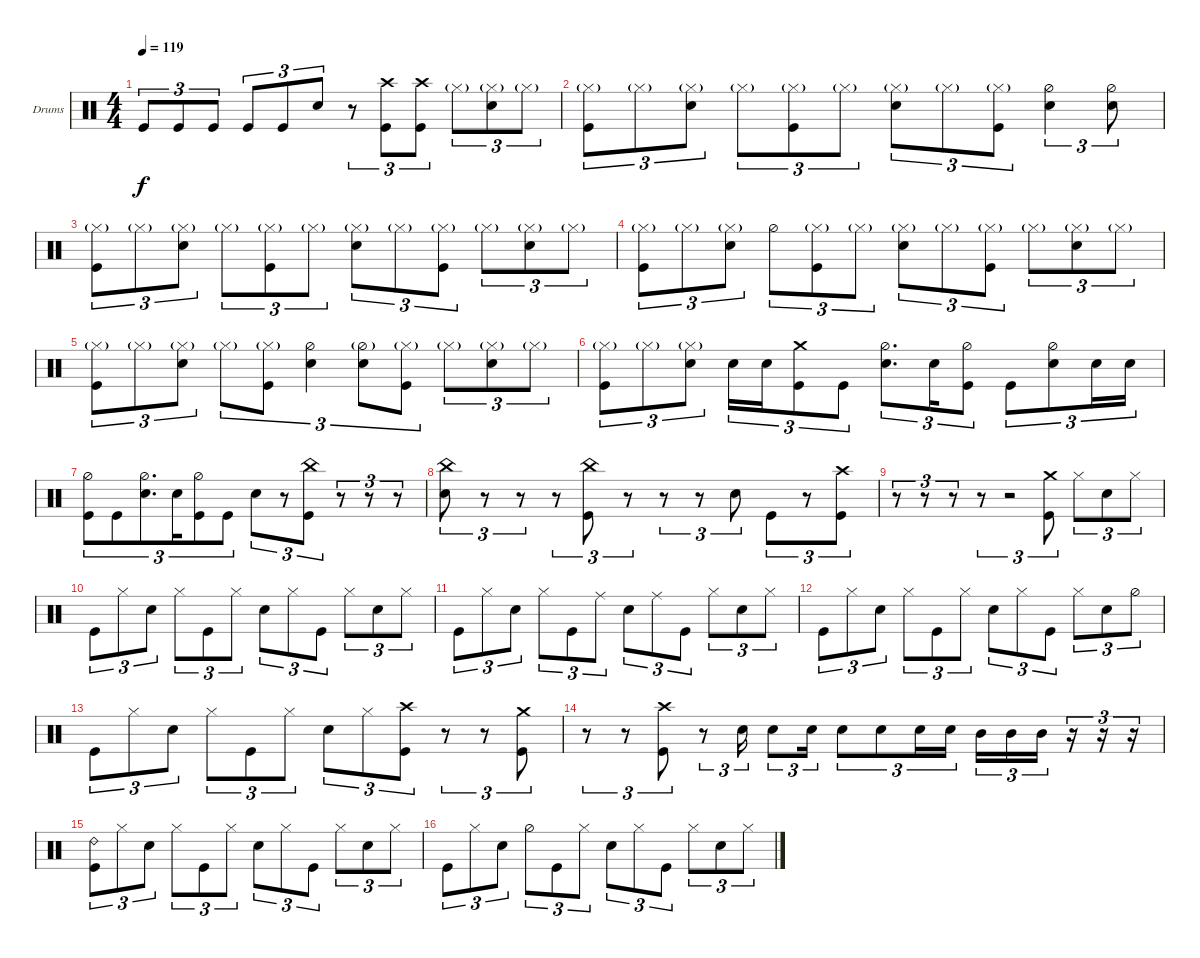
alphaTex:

\defaultSystemsLayout 4
\bracketExtendMode groupsimilarinstruments
\firstSystemTrackNameOrientation horizontal
\otherSystemsTrackNameOrientation horizontal
\track ("Drumkit" "Drums") {instrument percussion}
\staff {score}
\articulation defaults
\ts (4 4)
\tempo 119
\clef neutral
\ks c "Kick (hit)".8{tu (3 2) dy f} "Kick (hit)".8{tu (3 2)} "Kick (hit)".8{tu (3 2)} "Kick (hit)".8{tu (3 2)} "Kick (hit)".8{tu (3 2)} "Snare (hit) 2".8{tu (3 2)}
r.8{tu (3 2)} ("Kick (hit)" "Crash high (hit)").8{tu (3 2)} ("Kick (hit)" "Crash high (hit)").8{tu (3 2)} "Hi-Hat (closed)"{g}.8{tu (3 2)} ("Snare (hit) 2" "Hi-Hat (closed)"{g}).8{tu (3 2)} "Hi-Hat (closed)"{g}.8{tu (3 2)} |
("Kick (hit)" "Hi-Hat (closed)"{g}).8{tu (3 2)} "Hi-Hat (closed)"{g}.8{tu (3 2)} ("Snare (hit) 2" "Hi-Hat (closed)"{g}).8{tu (3 2)} "Hi-Hat (closed)"{g}.8{tu (3 2)} ("Kick (hit)" "Hi-Hat (closed)"{g}).8{tu (3 2)} "Hi-Hat (closed)"{g}.8{tu (3 2)} ("Snare (hit) 2" "Hi-Hat (closed)"{g}).8{tu (3 2)} "Hi-Hat (closed)"{g}.8{tu (3 2)} ("Kick (hit)" "Hi-Hat (closed)"{g}).8{tu (3 2)} ("Snare (hit) 2" "Hi-Hat (half)").4{tu (3 2)} ("Snare (hit) 2" "Hi-Hat (half)").8{tu (3 2)} |
("Kick (hit)" "Hi-Hat (closed)"{g}).8{tu (3 2)} "Hi-Hat (closed)"{g}.8{tu (3 2)} ("Snare (hit) 2" "Hi-Hat (closed)"{g}).8{tu (3 2)} "Hi-Hat (closed)"{g}.8{tu (3 2)} ("Kick (hit)" "Hi-Hat (closed)"{g}).8{tu (3 2)} "Hi-Hat (closed)"{g}.8{tu (3 2)} ("Snare (hit) 2" "Hi-Hat (closed)"{g}).8{tu (3 2)} "Hi-Hat (closed)"{g}.8{tu (3 2)} ("Hi-Hat (closed)"{g} "Kick (hit)").8{tu (3 2)} "Hi-Hat (closed)"{g}.8{tu (3 2)} ("Hi-Hat (closed)"{g} "Snare (hit) 2").8{tu (3 2)} "Hi-Hat (closed)"{g}.8{tu (3 2)} |
("Hi-Hat (closed)"{g} "Kick (hit)").8{tu (3 2)} "Hi-Hat (closed)"{g}.8{tu (3 2)} ("Hi-Hat (closed)"{g} "Snare (hit) 2").8{tu (3 2)} "Hi-Hat (half)".8{tu (3 2)} ("Kick (hit)" "Hi-Hat (closed)"{g}).8{tu (3 2)} "Hi-Hat (closed)"{g}.8{tu (3 2)} ("Hi-Hat (closed)"{g} "Snare (hit) 2").8{tu (3 2)} "Hi-Hat (closed)"{g}.8{tu (3 2)} ("Hi-Hat (closed)"{g} "Kick (hit)").8{tu (3 2)} "Hi-Hat (closed)"{g}.8{tu (3 2)} ("Hi-Hat (closed)"{g} "Snare (hit) 2").8{tu (3 2)} "Hi-Hat (closed)"{g}.8{tu (3 2)} |
("Hi-Hat (closed)"{g} "Kick (hit)").8{tu (3 2)} "Hi-Hat (closed)"{g}.8{tu (3 2)} ("Hi-Hat (closed)"{g} "Snare (hit) 2").8{tu (3 2)} "Hi-Hat (closed)"{g}.8{tu (3 2)} ("Kick (hit)" "Hi-Hat (closed)"{g}).8{tu (3 2)} ("Snare (hit) 2" "Hi-Hat (half)").4{tu (3 2)} ("Snare (hit) 2" "Hi-Hat (half)"{g}).8{tu (3 2)} ("Kick (hit)" "Hi-Hat (closed)"{g}).8{tu (3 2)} "Hi-Hat (closed)"{g}.8{tu (3 2)} ("Hi-Hat (closed)"{g} "Snare (hit) 2").8{tu (3 2)} "Hi-Hat (closed)"{g}.8{tu (3 2)} |
("Kick (hit)" "Hi-Hat (closed)"{g}).8{tu (3 2)} "Hi-Hat (closed)"{g}.8{tu (3 2)} ("Snare (hit) 2" "Hi-Hat (closed)"{g}).8{tu (3 2)} "Snare (hit) 2".16{tu (3 2)} "Snare (hit) 2".16{tu (3 2)} ("Kick (hit)" "Crash medium (hit)").8{tu (3 2)} "Kick (hit)".8{tu (3 2)} ("Snare (hit) 2" "Hi-Hat (half)").8{d tu (3 2)} "Snare (hit) 2".16{tu (3 2)} ("Kick (hit)" "Hi-Hat (half)").8{tu (3 2)} "Kick (hit)".8{tu (3 2)} ("Snare (hit) 2" "Hi-Hat (half)").8{tu (3 2)} "Snare (hit) 2".16{tu (3 2)} "Snare (hit) 2".16{tu (3 2)} |
("Kick (hit)" "Hi-Hat (half)").8{tu (3 2)} "Kick (hit)".8{tu (3 2)} ("Snare (hit) 2" "Hi-Hat (half)").8{d tu (3 2)} "Snare (hit) 2".16{tu (3 2)} ("Kick (hit)" "Hi-Hat (half)").8{tu (3 2)} "Kick (hit)".8{tu (3 2)} "Snare (hit) 2".8{tu (3 2)} r.8{tu (3 2)} ("Kick (hit)" "China (hit)").8{tu (3 2)} r.8{tu (3 2)} r.8{tu (3 2)} r.8{tu (3 2)} |
("Snare (hit) 2" "China (hit)").8{tu (3 2)} r.8{tu (3 2)} r.8{tu (3 2)} r.8{tu (3 2)} ("Kick (hit)" "China (hit)").8{tu (3 2)} r.8{tu (3 2)} r.8{tu (3 2)} r.8{tu (3 2)} "Snare (hit) 2".8{tu (3 2)} "Kick (hit)".8{tu (3 2)} r.8{tu (3 2)} ("Crash high (hit)" "Kick (hit)").8{tu (3 2)} |
r.8{tu (3 2)} r.8{tu (3 2)} r.8{tu (3 2)} r.8{tu (3 2)} r.2{tu (3 2)} ("Kick (hit)" "Crash medium (hit)").8{tu (3 2)} "Hi-Hat (closed)".8{tu (3 2)} "Snare (hit) 2".8{tu (3 2)} "Hi-Hat (closed)".8{tu (3 2)} |
"Kick (hit)".8{tu (3 2)} "Hi-Hat (closed)".8{tu (3 2)} "Snare (hit) 2".8{tu (3 2)} "Hi-Hat (closed)".8{tu (3 2)} "Kick (hit)".8{tu (3 2)} "Hi-Hat (closed)".8{tu (3 2)} "Snare (hit) 2".8{tu (3 2)} "Hi-Hat (closed)".8{tu (3 2)} "Kick (hit)".8{tu (3 2)} "Hi-Hat (closed)".8{tu (3 2)} "Snare (hit) 2".8{tu (3 2)} "Hi-Hat (closed)".8{tu (3 2)} |
"Kick (hit)".8{tu (3 2)} "Hi-Hat (closed)".8{tu (3 2)} "Snare (hit) 2".8{tu (3 2)} "Hi-Hat (closed)".8{tu (3 2)} "Kick (hit)".8{tu (3 2)} "Ride (middle)".8{tu (3 2)} "Snare (hit) 2".8{tu (3 2)} "Ride (middle)".8{tu (3 2)} "Kick (hit)".8{tu (3 2)} "Hi-Hat (closed)".8{tu (3 2)} "Snare (hit) 2".8{tu (3 2)} "Hi-Hat (closed)".8{tu (3 2)} |
"Kick (hit)".8{tu (3 2)} "Hi-Hat (closed)".8{tu (3 2)} "Snare (hit) 2".8{tu (3 2)} "Hi-Hat (closed)".8{tu (3 2)} "Kick (hit)".8{tu (3 2)} "Hi-Hat (closed)".8{tu (3 2)} "Snare (hit) 2".8{tu (3 2)} "Hi-Hat (closed)".8{tu (3 2)} "Kick (hit)".8{tu (3 2)} "Hi-Hat (closed)".8{tu (3 2)} "Snare (hit) 2".8{tu (3 2)} "Hi-Hat (half)".8{tu (3 2)} |
"Kick (hit)".8{tu (3 2)} "Hi-Hat (closed)".8{tu (3 2)} "Snare (hit) 2".8{tu (3 2)} "Hi-Hat (closed)".8{tu (3 2)} "Kick (hit)".8{tu (3 2)} "Hi-Hat (closed)".8{tu (3 2)} "Snare (hit) 2".8{tu (3 2)} "Hi-Hat (closed)".8{tu (3 2)} ("Kick (hit)" "Crash high (hit)").8{tu (3 2)} r.8{tu (3 2)} r.8{tu (3 2)} ("Kick (hit)" "Crash medium (hit)").8{tu (3 2)} |
r.8{tu (3 2)} r.8{tu (3 2)} ("Kick (hit)" "Crash high (hit)").8{tu (3 2)} r.8{tu (3 2)} "Snare (hit) 2".16{tu (3 2)} "Snare (hit) 2".8{tu (3 2)} "Snare (hit) 2".16{tu (3 2)} "Snare (hit) 2".8{tu (3 2)} "Snare (hit) 2".8{tu (3 2)} "Snare (hit) 2".16{tu (3 2)} "Snare (hit) 2".16{tu (3 2)} "Mid Tom (hit)".16{tu (3 2)} "Mid Tom (hit)".16{tu (3 2)} "Mid Tom (hit)".16{tu (3 2)} r.16{tu (3 2)} r.16{tu (3 2)} r.16{tu (3 2)} |
("Kick (hit)" "Ride (bell) 2").8{tu (3 2)} "Hi-Hat (closed)".8{tu (3 2)} "Snare (hit) 2".8{tu (3 2)} "Hi-Hat (closed)".8{tu (3 2)} "Kick (hit)".8{tu (3 2)} "Hi-Hat (closed)".8{tu (3 2)} "Snare (hit) 2".8{tu (3 2)} "Hi-Hat (closed)".8{tu (3 2)} "Kick (hit)".8{tu (3 2)} "Hi-Hat (closed)".8{tu (3 2)} "Snare (hit) 2".8{tu (3 2)} "Hi-Hat (closed)".8{tu (3 2)} |
"Kick (hit)".8{tu (3 2)} "Hi-Hat (closed)".8{tu (3 2)} "Snare (hit) 2".8{tu (3 2)} "Hi-Hat (half)".8{tu (3 2)} "Kick (hit)".8{tu (3 2)} "Hi-Hat (closed)".8{tu (3 2)} "Snare (hit) 2".8{tu (3 2)} "Hi-Hat (closed)".8{tu (3 2)} "Kick (hit)".8{tu (3 2)} "Hi-Hat (closed)".8{tu (3 2)} "Snare (hit) 2".8{tu (3 2)} "Hi-Hat (closed)".8{tu (3 2)}
